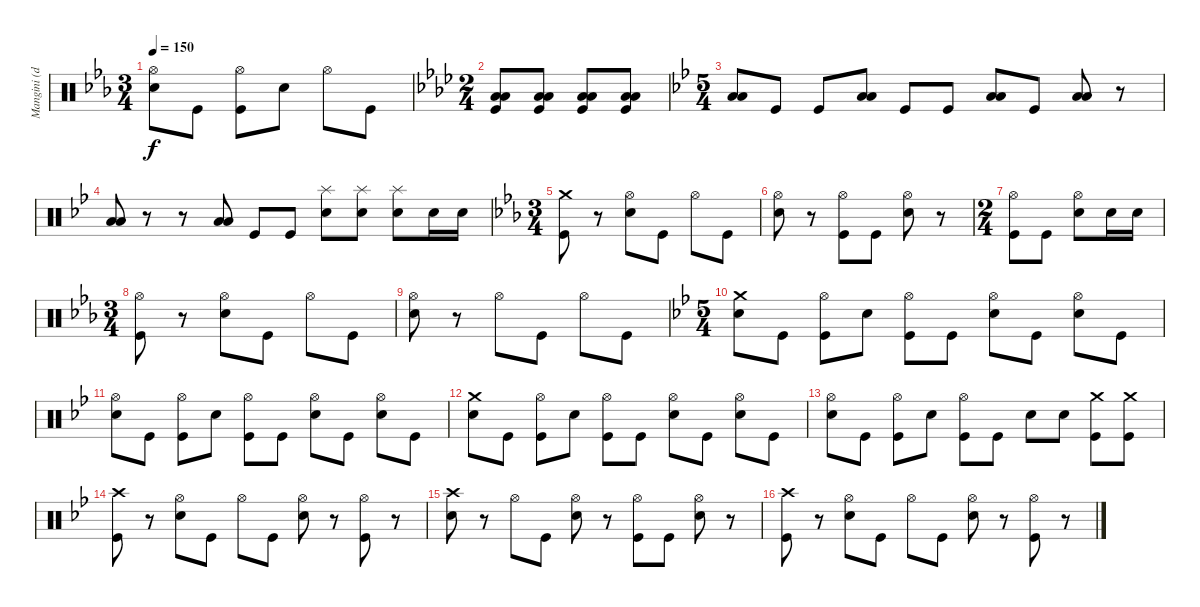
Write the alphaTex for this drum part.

\track ("Mangini (drums)" "Mangini (d") {instrument percussion}
\staff {score}
\articulation defaults
\ts (3 4)
\tempo 150
\clef neutral
\ks cminor
("Hi-Hat (open)" "Snare (hit) 2").8{dy f} "Kick (hit)".8 ("Hi-Hat (open)" "Kick (hit)").8 "Snare (hit) 2".8 "Hi-Hat (open)".8 "Kick (hit)".8 |
\ts (2 4)
\ks fminor
("Low Floor Tom (hit)" "Low Tom (hit)" "Kick (hit)").8 ("Low Floor Tom (hit)" "Low Tom (hit)" "Kick (hit)").8 ("Low Floor Tom (hit)" "Low Tom (hit)" "Kick (hit)").8 ("Low Floor Tom (hit)" "Low Tom (hit)" "Kick (hit)").8 |
\ts (5 4)
\ks gminor
("Low Floor Tom (hit)" "Low Tom (hit)").8 "Kick (hit)".8 "Kick (hit)".8 ("Low Floor Tom (hit)" "Low Tom (hit)").8 "Kick (hit)".8 "Kick (hit)".8 ("Low Floor Tom (hit)" "Low Tom (hit)").8 "Kick (hit)".8 ("Low Floor Tom (hit)" "Low Tom (hit)").8 r.8 |
("Low Floor Tom (hit)" "Low Tom (hit)").8 r.8 r.8 ("Low Floor Tom (hit)" "Low Tom (hit)").8 "Kick (hit)".8 "Kick (hit)".8 ("Splash (hit)" "Snare (hit) 2").8 ("Splash (hit)" "Snare (hit) 2").8 ("Splash (hit)" "Snare (hit) 2").8 "Snare (hit) 2".16 "Snare (hit) 2".16 |
\ts (3 4)
\ks cminor
("Crash medium (hit)" "Kick (hit)").8 r.8 ("Hi-Hat (open)" "Snare (hit) 2").8 "Kick (hit)".8 "Hi-Hat (open)".8 "Kick (hit)".8 |
("Hi-Hat (open)" "Snare (hit) 2").8 r.8 ("Hi-Hat (open)" "Kick (hit)").8 "Kick (hit)".8 ("Hi-Hat (open)" "Snare (hit) 2").8 r.8 |
\ts (2 4)
("Hi-Hat (open)" "Kick (hit)").8 "Kick (hit)".8 ("Hi-Hat (open)" "Snare (hit) 2").8 "Snare (hit) 2".16 "Snare (hit) 2".16 |
\ts (3 4)
("Hi-Hat (open)" "Kick (hit)").8 r.8 ("Hi-Hat (open)" "Snare (hit) 2").8 "Kick (hit)".8 "Hi-Hat (open)".8 "Kick (hit)".8 |
("Hi-Hat (open)" "Snare (hit) 2").8 r.8 "Hi-Hat (open)".8 "Kick (hit)".8 "Hi-Hat (open)".8 "Kick (hit)".8 |
\ts (5 4)
\ks gminor
("Crash medium (hit)" "Snare (hit) 2").8 "Kick (hit)".8 ("Hi-Hat (open)" "Kick (hit)").8 "Snare (hit) 2".8 ("Hi-Hat (open)" "Kick (hit)").8 "Kick (hit)".8 ("Hi-Hat (open)" "Snare (hit) 2").8 "Kick (hit)".8 ("Hi-Hat (open)" "Snare (hit) 2").8 "Kick (hit)".8 |
("Hi-Hat (open)" "Snare (hit) 2").8 "Kick (hit)".8 ("Hi-Hat (open)" "Kick (hit)").8 "Snare (hit) 2".8 ("Hi-Hat (open)" "Kick (hit)").8 "Kick (hit)".8 ("Hi-Hat (open)" "Snare (hit) 2").8 "Kick (hit)".8 ("Hi-Hat (open)" "Snare (hit) 2").8 "Kick (hit)".8 |
("Crash medium (hit)" "Snare (hit) 2").8 "Kick (hit)".8 ("Hi-Hat (open)" "Kick (hit)").8 "Snare (hit) 2".8 ("Hi-Hat (open)" "Kick (hit)").8 "Kick (hit)".8 ("Hi-Hat (open)" "Snare (hit) 2").8 "Kick (hit)".8 ("Hi-Hat (open)" "Snare (hit) 2").8 "Kick (hit)".8 |
("Hi-Hat (open)" "Snare (hit) 2").8 "Kick (hit)".8 ("Hi-Hat (open)" "Kick (hit)").8 "Snare (hit) 2".8 ("Hi-Hat (open)" "Kick (hit)").8 "Kick (hit)".8 "Snare (hit) 2".8 "Snare (hit) 2".8 ("Crash medium (hit)" "Kick (hit)").8 ("Crash medium (hit)" "Kick (hit)").8 |
("Crash high (hit)" "Kick (hit)").8 r.8 ("Hi-Hat (open)" "Snare (hit) 2").8 "Kick (hit)".8 "Hi-Hat (open)".8 "Kick (hit)".8 ("Hi-Hat (open)" "Snare (hit) 2").8 r.8 ("Hi-Hat (open)" "Kick (hit)").8 r.8 |
("Crash high (hit)" "Snare (hit) 2").8 r.8 "Hi-Hat (open)".8 "Kick (hit)".8 ("Hi-Hat (open)" "Snare (hit) 2").8 r.8 ("Hi-Hat (open)" "Kick (hit)").8 "Kick (hit)".8 ("Hi-Hat (open)" "Snare (hit) 2").8 r.8 |
("Crash high (hit)" "Kick (hit)").8 r.8 ("Hi-Hat (open)" "Snare (hit) 2").8 "Kick (hit)".8 "Hi-Hat (open)".8 "Kick (hit)".8 ("Hi-Hat (open)" "Snare (hit) 2").8 r.8 ("Hi-Hat (open)" "Kick (hit)").8 r.8
